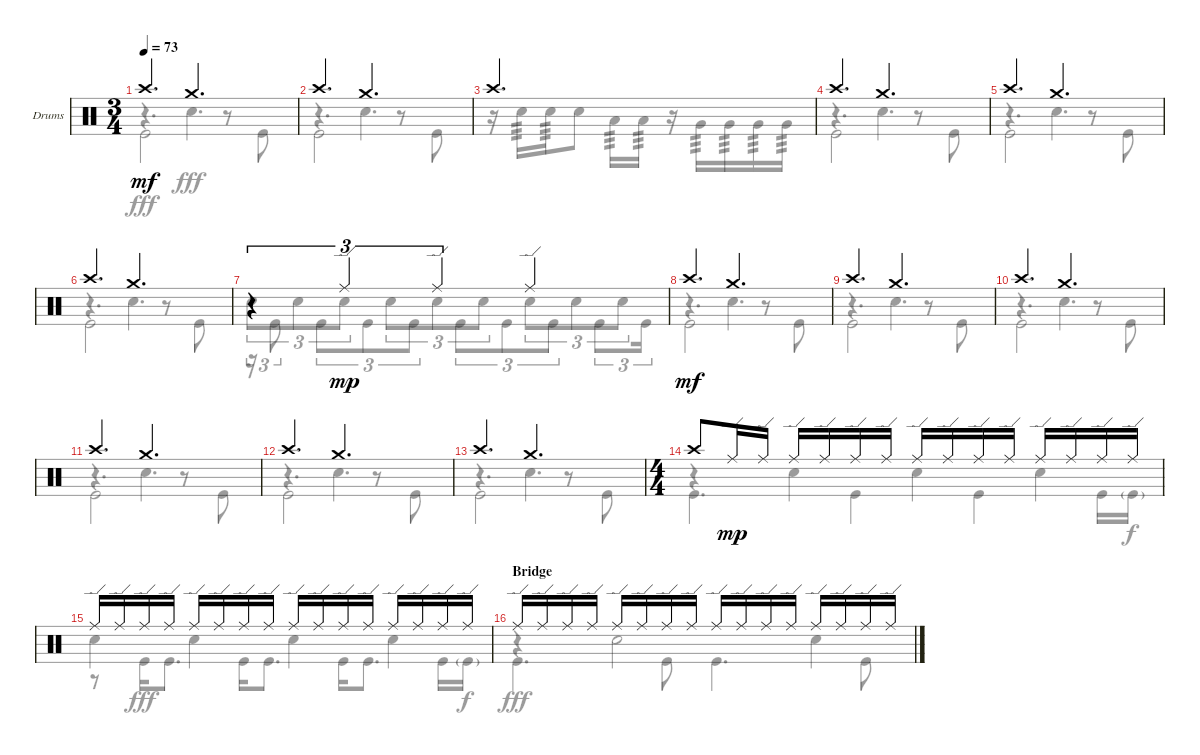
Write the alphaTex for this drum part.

\defaultSystemsLayout 4
\bracketExtendMode groupsimilarinstruments
\firstSystemTrackNameOrientation horizontal
\otherSystemsTrackNameOrientation horizontal
\track ("Drumkit" "Drums") {instrument percussion}
\staff {score}
\articulation defaults
\voice
\ts (3 4)
\tempo 73
\clef neutral
\ks c "Crash high (hit)".4{d dy mf} "Crash medium (hit)".4{d}
|
"Crash high (hit)".4{d} "Crash medium (hit)".4{d} |
"Crash high (hit)".2{d} |
"Crash high (hit)".4{d} "Crash medium (hit)".4{d} |
"Crash high (hit)".4{d} "Crash medium (hit)".4{d} |
"Crash high (hit)".4{d} "Crash medium (hit)".4{d} |
r.4{tu (3 2)} "Ride (edge)".4{tu (3 2) dy mp} "Ride (edge)".4{tu (3 2)} "Ride (edge)".4 |
"Crash high (hit)".4{d dy mf} "Crash medium (hit)".4{d} |
"Crash high (hit)".4{d} "Crash medium (hit)".4{d} |
"Crash high (hit)".4{d} "Crash medium (hit)".4{d} |
"Crash high (hit)".4{d} "Crash medium (hit)".4{d} |
"Crash high (hit)".4{d} "Crash medium (hit)".4{d} |
"Crash high (hit)".4{d} "Crash medium (hit)".4{d} |
\ts (4 4)
"Crash high (hit)".8 "Ride (edge)".16{dy mp} "Ride (edge)".16 "Ride (edge)".16 "Ride (edge)".16 "Ride (edge)".16 "Ride (edge)".16 "Ride (edge)".16 "Ride (edge)".16 "Ride (edge)".16 "Ride (edge)".16 "Ride (edge)".16 "Ride (edge)".16 "Ride (edge)".16 "Ride (edge)".16 |
"Ride (edge)".16 "Ride (edge)".16 "Ride (edge)".16 "Ride (edge)".16 "Ride (edge)".16 "Ride (edge)".16 "Ride (edge)".16 "Ride (edge)".16 "Ride (edge)".16 "Ride (edge)".16 "Ride (edge)".16 "Ride (edge)".16 "Ride (edge)".16 "Ride (edge)".16 "Ride (edge)".16 "Ride (edge)".16 |
\section ("" "Bridge")
"Ride (edge)".16 "Ride (edge)".16 "Ride (edge)".16 "Ride (edge)".16 "Ride (edge)".16 "Ride (edge)".16 "Ride (edge)".16 "Ride (edge)".16 "Ride (edge)".16 "Ride (edge)".16 "Ride (edge)".16 "Ride (edge)".16 "Ride (edge)".16 "Ride (edge)".16 "Ride (edge)".16 "Ride (edge)".16
\voice
\clef neutral
\ottava regular
\simile none
\ks c
r.4{d dy fff} "Snare (hit) 2".4{d} |
r.4{d} "Snare (hit) 2".4{d} |
r.16 "Snare (hit) 2".16{tp 3} "Snare (hit) 2".16{tp 3} "Snare (hit) 2".8 "Low Tom (hit)".16{tp 3} "Low Tom (hit)".16{tp 3} r.16 "Very Low Tom (hit)".16{tp 3} "Very Low Tom (hit)".16{tp 3} "Very Low Tom (hit)".16{tp 3} "Very Low Tom (hit)".16{tp 3} |
r.4{d} "Snare (hit) 2".4{d} |
r.4{d} "Snare (hit) 2".4{d} |
r.4{d} "Snare (hit) 2".4{d} |
"Snare (hit) 2".8{tu (3 2)} "Snare (hit) 2".8{tu (3 2)} "Snare (hit) 2".8{tu (3 2)} "Snare (hit) 2".8{tu (3 2)} "Snare (hit) 2".8{tu (3 2)} "Snare (hit) 2".8{tu (3 2)} "Snare (hit) 2".8{tu (3 2)} "Snare (hit) 2".8{tu (3 2)} "Snare (hit) 2".8{tu (3 2)} |
r.4{d} "Snare (hit) 2".4{d} |
r.4{d} "Snare (hit) 2".4{d} |
r.4{d} "Snare (hit) 2".4{d} |
r.4{d} "Snare (hit) 2".4{d} |
r.4{d} "Snare (hit) 2".4{d} |
r.4{d} "Snare (hit) 2".4{d} |
r.4 "Snare (hit) 2".4 "Snare (hit) 2".4 "Snare (hit) 2".4 |
"Snare (hit) 2".4 "Snare (hit) 2".4 "Snare (hit) 2".4 "Snare (hit) 2".4 |
r.4 "Snare (hit) 2".2 "Snare (hit) 2".4
\voice
\clef neutral
\ottava regular
\simile none
\ks c "Kick (hit)".2{dy fff}
r.8 "Kick (hit)".8 |
"Kick (hit)".2 r.8 "Kick (hit)".8 |
|
"Kick (hit)".2 r.8 "Kick (hit)".8 |
"Kick (hit)".2 r.8 "Kick (hit)".8 |
"Kick (hit)".2 r.8 "Kick (hit)".8 |
r.16{tu (3 2)} "Kick (hit)".8{tu (3 2)} "Kick (hit)".8{tu (3 2)} "Kick (hit)".8{tu (3 2)} "Kick (hit)".8{tu (3 2)} "Kick (hit)".8{tu (3 2)} "Kick (hit)".8{tu (3 2)} "Kick (hit)".8{tu (3 2)} "Kick (hit)".8{tu (3 2)} "Kick (hit)".16{tu (3 2)} |
"Kick (hit)".2 r.8 "Kick (hit)".8 |
"Kick (hit)".2 r.8 "Kick (hit)".8 |
"Kick (hit)".2 r.8 "Kick (hit)".8 |
"Kick (hit)".2 r.8 "Kick (hit)".8 |
"Kick (hit)".2 r.8 "Kick (hit)".8 |
"Kick (hit)".2 r.8 "Kick (hit)".8 |
"Kick (hit)".4{d} "Kick (hit)".4 "Kick (hit)".4 "Kick (hit)".16 "Kick (hit)"{g}.16{dy f} |
r.8 "Kick (hit)".16{dy fff} "Kick (hit)".8{d} "Kick (hit)".16 "Kick (hit)".8{d} "Kick (hit)".16 "Kick (hit)".8{d} "Kick (hit)".16 "Kick (hit)"{g}.16{dy f} |
"Kick (hit)".4{d dy fff} "Kick (hit)".8 "Kick (hit)".4{d} "Kick (hit)".8
